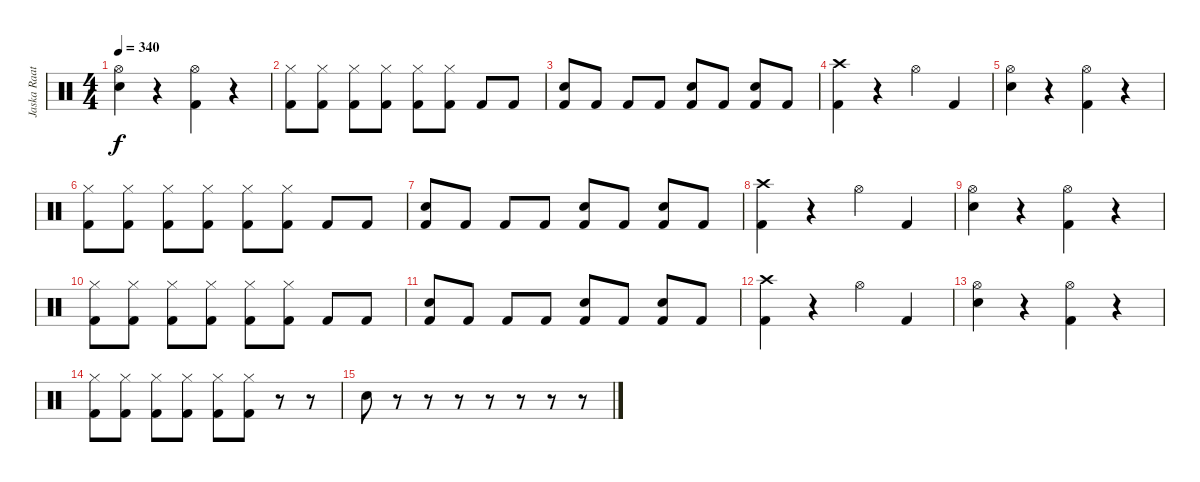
\track ("Jaska Raatkinen" "Jaska Raat") {instrument percussion}
\staff {score}
\articulation defaults
\ts (4 4)
\tempo 340
\clef neutral
\ks c
("Hi-Hat (open)" "Snare (hit) 2").4{dy f} r.4 ("Hi-Hat (open)" "Kick (hit) 2").4 r.4 |
("Hi-Hat (closed)" "Kick (hit) 2").8 ("Hi-Hat (closed)" "Kick (hit) 2").8 ("Hi-Hat (closed)" "Kick (hit) 2").8 ("Hi-Hat (closed)" "Kick (hit) 2").8 ("Hi-Hat (closed)" "Kick (hit) 2").8 ("Hi-Hat (closed)" "Kick (hit) 2").8 "Kick (hit) 2".8 "Kick (hit) 2".8 |
("Snare (hit) 2" "Kick (hit) 2").8 "Kick (hit) 2".8 "Kick (hit) 2".8 "Kick (hit) 2".8 ("Snare (hit) 2" "Kick (hit) 2").8 "Kick (hit) 2".8 ("Snare (hit) 2" "Kick (hit) 2").8 "Kick (hit) 2".8 |
("Crash high (hit)" "Kick (hit) 2").4 r.4 "Hi-Hat (open)".4 "Kick (hit) 2".4 |
("Hi-Hat (open)" "Snare (hit) 2").4 r.4 ("Hi-Hat (open)" "Kick (hit) 2").4 r.4 |
("Hi-Hat (closed)" "Kick (hit) 2").8 ("Hi-Hat (closed)" "Kick (hit) 2").8 ("Hi-Hat (closed)" "Kick (hit) 2").8 ("Hi-Hat (closed)" "Kick (hit) 2").8 ("Hi-Hat (closed)" "Kick (hit) 2").8 ("Hi-Hat (closed)" "Kick (hit) 2").8 "Kick (hit) 2".8 "Kick (hit) 2".8 |
("Snare (hit) 2" "Kick (hit) 2").8 "Kick (hit) 2".8 "Kick (hit) 2".8 "Kick (hit) 2".8 ("Snare (hit) 2" "Kick (hit) 2").8 "Kick (hit) 2".8 ("Snare (hit) 2" "Kick (hit) 2").8 "Kick (hit) 2".8 |
("Crash high (hit)" "Kick (hit) 2").4 r.4 "Hi-Hat (open)".4 "Kick (hit) 2".4 |
("Hi-Hat (open)" "Snare (hit) 2").4 r.4 ("Hi-Hat (open)" "Kick (hit) 2").4 r.4 |
("Hi-Hat (closed)" "Kick (hit) 2").8 ("Hi-Hat (closed)" "Kick (hit) 2").8 ("Hi-Hat (closed)" "Kick (hit) 2").8 ("Hi-Hat (closed)" "Kick (hit) 2").8 ("Hi-Hat (closed)" "Kick (hit) 2").8 ("Hi-Hat (closed)" "Kick (hit) 2").8 "Kick (hit) 2".8 "Kick (hit) 2".8 |
("Snare (hit) 2" "Kick (hit) 2").8 "Kick (hit) 2".8 "Kick (hit) 2".8 "Kick (hit) 2".8 ("Snare (hit) 2" "Kick (hit) 2").8 "Kick (hit) 2".8 ("Snare (hit) 2" "Kick (hit) 2").8 "Kick (hit) 2".8 |
("Crash high (hit)" "Kick (hit) 2").4 r.4 "Hi-Hat (open)".4 "Kick (hit) 2".4 |
("Hi-Hat (open)" "Snare (hit) 2").4 r.4 ("Hi-Hat (open)" "Kick (hit) 2").4 r.4 |
("Hi-Hat (closed)" "Kick (hit) 2").8 ("Hi-Hat (closed)" "Kick (hit) 2").8 ("Hi-Hat (closed)" "Kick (hit) 2").8 ("Hi-Hat (closed)" "Kick (hit) 2").8 ("Hi-Hat (closed)" "Kick (hit) 2").8 ("Hi-Hat (closed)" "Kick (hit) 2").8 r.8 r.8 |
"Snare (hit) 2".8 r.8 r.8 r.8 r.8 r.8 r.8 r.8
